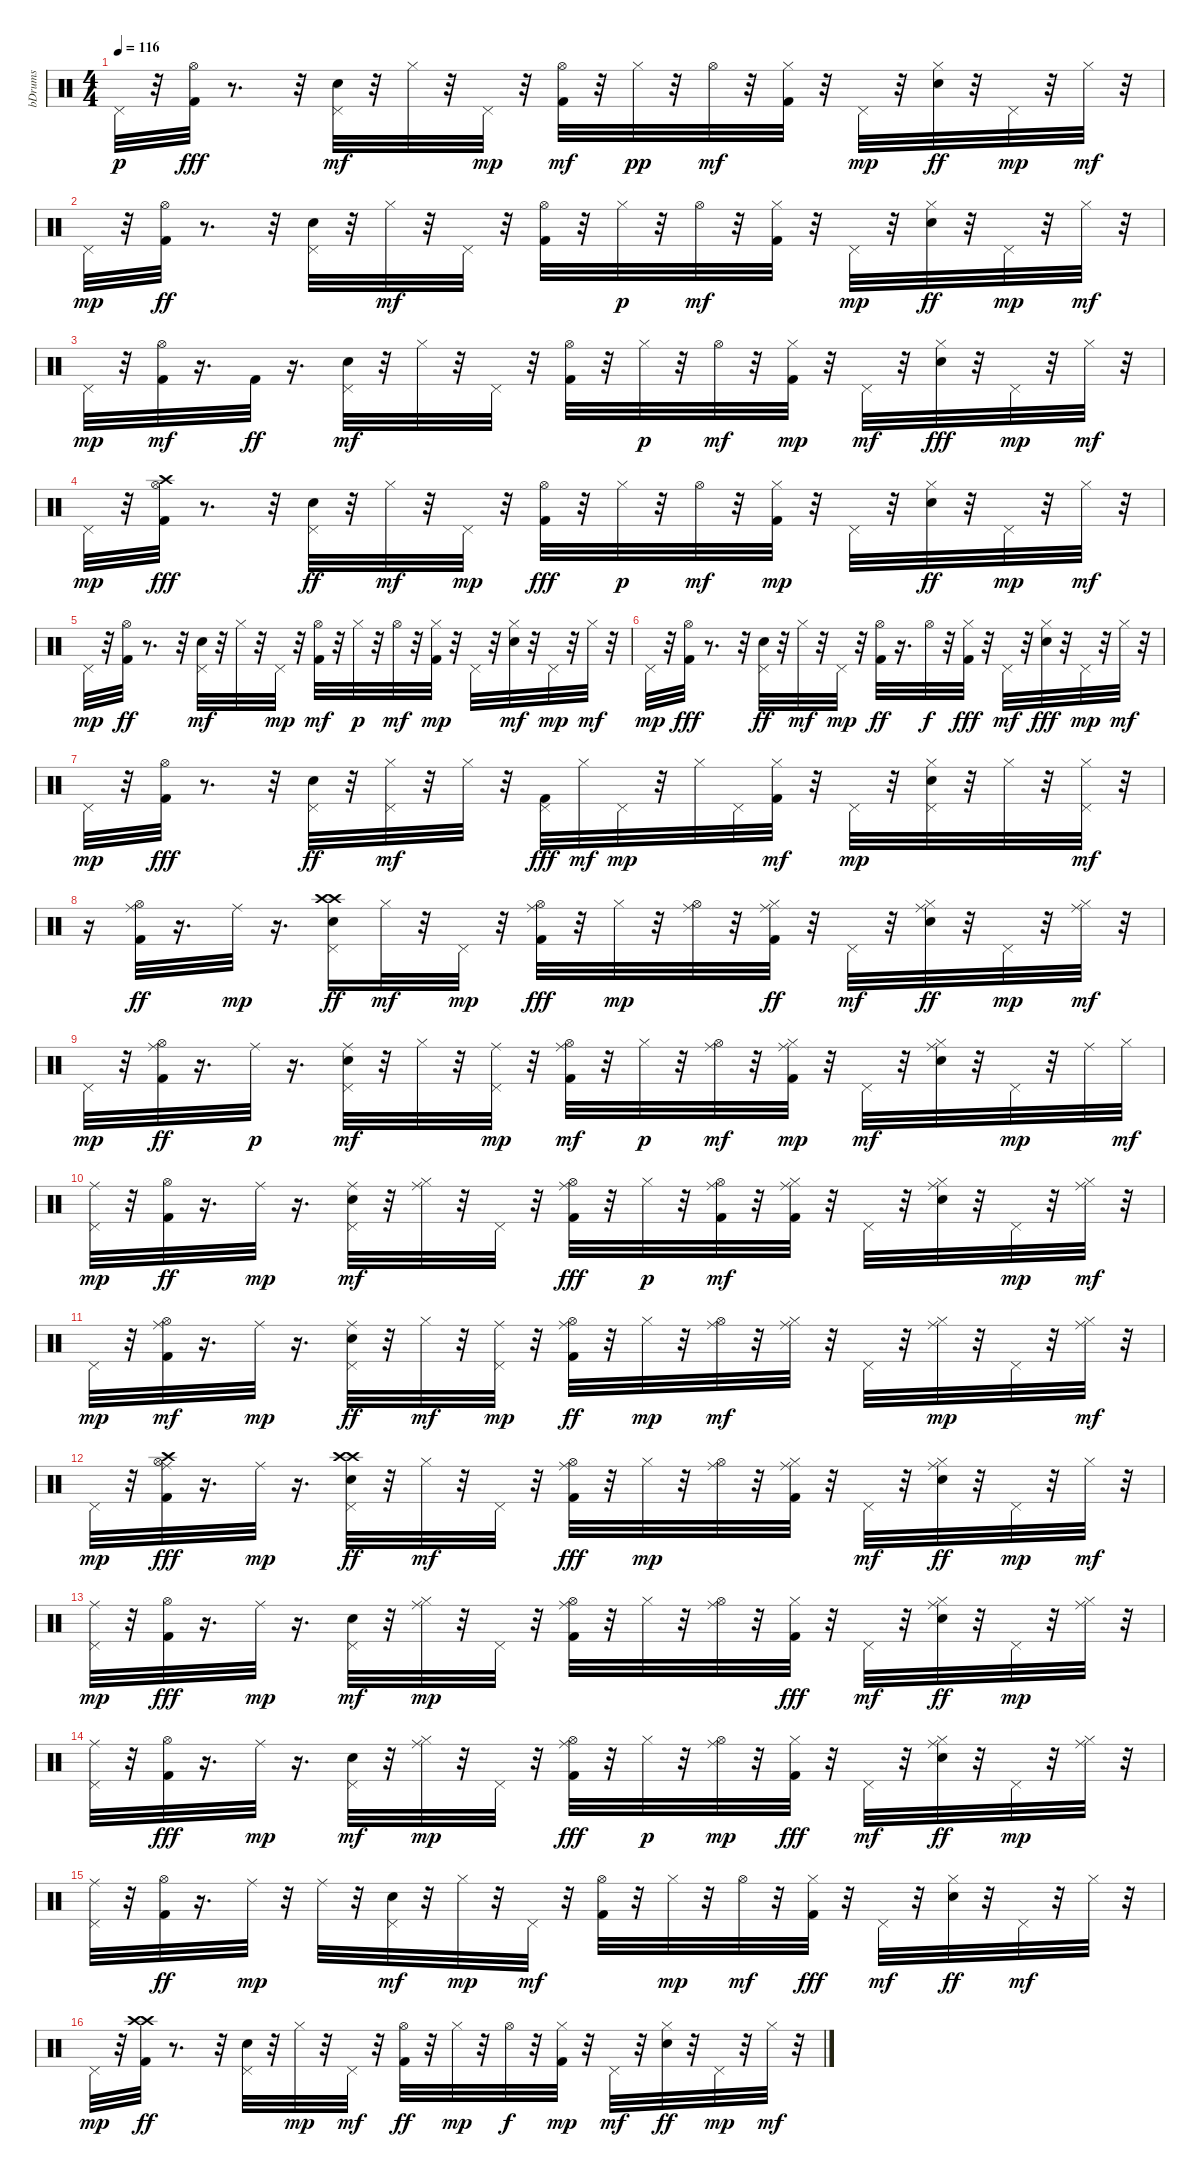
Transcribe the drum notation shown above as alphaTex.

\track ("bDrums" "bDrums") {instrument percussion}
\staff {score}
\articulation defaults
\ts (4 4)
\tempo 116
\clef neutral
\ks c "Pedal Hi-Hat (hit)".32{dy p}
r.32 ("Hi-Hat (open)" "Kick (hit) 2").32{dy fff} r.8{d} r.32 ("Snare (hit) 2" "Pedal Hi-Hat (hit)").32{dy mf} r.32 "Hi-Hat (closed)".32 r.32 "Pedal Hi-Hat (hit)".32{dy mp} r.32 ("Kick (hit) 2" "Hi-Hat (open)").32{dy mf} r.32 "Hi-Hat (closed)".32{dy pp} r.32 "Hi-Hat (open)".32{dy mf} r.32 ("Kick (hit) 2" "Hi-Hat (closed)").32 r.32 "Pedal Hi-Hat (hit)".32{dy mp} r.32 ("Hi-Hat (closed)" "Snare (hit) 2").32{dy ff} r.32 "Pedal Hi-Hat (hit)".32{dy mp} r.32 "Hi-Hat (closed)".32{dy mf} r.32 |
"Pedal Hi-Hat (hit)".32{dy mp} r.32 ("Hi-Hat (open)" "Kick (hit) 2").32{dy ff} r.8{d} r.32 ("Pedal Hi-Hat (hit)" "Snare (hit) 2").32 r.32 "Hi-Hat (closed)".32{dy mf} r.32 "Pedal Hi-Hat (hit)".32 r.32 ("Kick (hit) 2" "Hi-Hat (open)").32 r.32 "Hi-Hat (closed)".32{dy p} r.32 "Hi-Hat (open)".32{dy mf} r.32 ("Kick (hit) 2" "Hi-Hat (closed)").32 r.32 "Pedal Hi-Hat (hit)".32{dy mp} r.32 ("Hi-Hat (closed)" "Snare (hit) 2").32{dy ff} r.32 "Pedal Hi-Hat (hit)".32{dy mp} r.32 "Hi-Hat (closed)".32{dy mf} r.32 |
"Pedal Hi-Hat (hit)".32{dy mp} r.32 ("Kick (hit) 2" "Hi-Hat (open)").32{dy mf} r.16{d} "Kick (hit) 2".32{dy ff} r.16{d} ("Snare (hit) 2" "Pedal Hi-Hat (hit)").32{dy mf} r.32 "Hi-Hat (closed)".32 r.32 "Pedal Hi-Hat (hit)".32 r.32 ("Kick (hit) 2" "Hi-Hat (open)").32 r.32 "Hi-Hat (closed)".32{dy p} r.32 "Hi-Hat (open)".32{dy mf} r.32 ("Kick (hit) 2" "Hi-Hat (closed)").32{dy mp} r.32 "Pedal Hi-Hat (hit)".32{dy mf} r.32 ("Hi-Hat (closed)" "Snare (hit) 2").32{dy fff} r.32 "Pedal Hi-Hat (hit)".32{dy mp} r.32 "Hi-Hat (closed)".32{dy mf} r.32 |
"Pedal Hi-Hat (hit)".32{dy mp} r.32 ("Crash high (hit)" "Hi-Hat (open)" "Kick (hit) 2").32{dy fff} r.8{d} r.32 ("Pedal Hi-Hat (hit)" "Snare (hit) 2").32{dy ff} r.32 "Hi-Hat (closed)".32{dy mf} r.32 "Pedal Hi-Hat (hit)".32{dy mp} r.32 ("Hi-Hat (open)" "Kick (hit) 2").32{dy fff} r.32 "Hi-Hat (closed)".32{dy p} r.32 "Hi-Hat (open)".32{dy mf} r.32 ("Kick (hit) 2" "Hi-Hat (closed)").32{dy mp} r.32 "Pedal Hi-Hat (hit)".32 r.32 ("Hi-Hat (closed)" "Snare (hit) 2").32{dy ff} r.32 "Pedal Hi-Hat (hit)".32{dy mp} r.32 "Hi-Hat (closed)".32{dy mf} r.32 |
"Pedal Hi-Hat (hit)".32{dy mp} r.32 ("Hi-Hat (open)" "Kick (hit) 2").32{dy ff} r.8{d} r.32 ("Snare (hit) 2" "Pedal Hi-Hat (hit)").32{dy mf} r.32 "Hi-Hat (closed)".32 r.32 "Pedal Hi-Hat (hit)".32{dy mp} r.32 ("Kick (hit) 2" "Hi-Hat (open)").32{dy mf} r.32 "Hi-Hat (closed)".32{dy p} r.32 "Hi-Hat (open)".32{dy mf} r.32 ("Kick (hit) 2" "Hi-Hat (closed)").32{dy mp} r.32 "Pedal Hi-Hat (hit)".32 r.32 ("Snare (hit) 2" "Hi-Hat (closed)").32{dy mf} r.32 "Pedal Hi-Hat (hit)".32{dy mp} r.32 "Hi-Hat (closed)".32{dy mf} r.32 |
"Pedal Hi-Hat (hit)".32{dy mp} r.32 ("Hi-Hat (open)" "Kick (hit) 2").32{dy fff} r.8{d} r.32 ("Pedal Hi-Hat (hit)" "Snare (hit) 2").32{dy ff} r.32 "Hi-Hat (closed)".32{dy mf} r.32 "Pedal Hi-Hat (hit)".32{dy mp} r.32 ("Hi-Hat (open)" "Kick (hit) 2").32{dy ff} r.16{d} "Hi-Hat (open)".32{dy f} r.32 ("Hi-Hat (closed)" "Kick (hit) 2").32{dy fff} r.32 "Pedal Hi-Hat (hit)".32{dy mf} r.32 ("Hi-Hat (closed)" "Snare (hit) 2").32{dy fff} r.32 "Pedal Hi-Hat (hit)".32{dy mp} r.32 "Hi-Hat (closed)".32{dy mf} r.32 |
"Pedal Hi-Hat (hit)".32{dy mp} r.32 ("Hi-Hat (open)" "Kick (hit) 2").32{dy fff} r.8{d} r.32 ("Pedal Hi-Hat (hit)" "Snare (hit) 2").32{dy ff} r.32 ("Hi-Hat (closed)" "Pedal Hi-Hat (hit)").32{dy mf} r.32 "Hi-Hat (closed)".32 r.32 ("Pedal Hi-Hat (hit)" "Kick (hit) 2").32{dy fff} "Hi-Hat (closed)".32{dy mf} "Pedal Hi-Hat (hit)".32{dy mp} r.32 "Hi-Hat (closed)".32 "Pedal Hi-Hat (hit)".32 ("Kick (hit) 2" "Hi-Hat (closed)").32{dy mf} r.32 "Pedal Hi-Hat (hit)".32{dy mp} r.32 ("Hi-Hat (closed)" "Snare (hit) 2" "Pedal Hi-Hat (hit)").32 r.32 "Hi-Hat (closed)".32 r.32 ("Pedal Hi-Hat (hit)" "Hi-Hat (closed)").32{dy mf} r.32 |
r.16 ("Hi-Hat (open)" "Ride (middle)" "Kick (hit) 2").32{dy ff} r.16{d} "Ride (middle)".32{dy mp} r.16{d} ("Pedal Hi-Hat (hit)" "Crash high (hit)" "Crash high (hit)" "Snare (hit) 2").16{dy ff} "Hi-Hat (closed)".32{dy mf} r.32 "Pedal Hi-Hat (hit)".32{dy mp} r.32 ("Ride (middle)" "Hi-Hat (open)" "Kick (hit) 2").32{dy fff} r.32 "Hi-Hat (closed)".32{dy mp} r.32 ("Ride (middle)" "Hi-Hat (open)").32 r.32 ("Ride (middle)" "Hi-Hat (closed)" "Kick (hit) 2").32{dy ff} r.32 "Pedal Hi-Hat (hit)".32{dy mf} r.32 ("Ride (middle)" "Hi-Hat (closed)" "Snare (hit) 2").32{dy ff} r.32 "Pedal Hi-Hat (hit)".32{dy mp} r.32 ("Ride (middle)" "Hi-Hat (closed)").32{dy mf} r.32 |
"Pedal Hi-Hat (hit)".32{dy mp} r.32 ("Ride (middle)" "Hi-Hat (open)" "Kick (hit) 2").32{dy ff} r.16{d} "Ride (middle)".32{dy p} r.16{d} ("Ride (middle)" "Snare (hit) 2" "Pedal Hi-Hat (hit)").32{dy mf} r.32 "Hi-Hat (closed)".32 r.32 ("Ride (middle)" "Pedal Hi-Hat (hit)").32{dy mp} r.32 ("Ride (middle)" "Kick (hit) 2" "Hi-Hat (open)").32{dy mf} r.32 "Hi-Hat (closed)".32{dy p} r.32 ("Ride (middle)" "Hi-Hat (open)").32{dy mf} r.32 ("Kick (hit) 2" "Ride (middle)" "Hi-Hat (closed)").32{dy mp} r.32 "Pedal Hi-Hat (hit)".32{dy mf} r.32 ("Ride (middle)" "Snare (hit) 2" "Hi-Hat (closed)").32 r.32 "Pedal Hi-Hat (hit)".32{dy mp} r.32 "Ride (middle)".32 "Hi-Hat (closed)".32{dy mf} |
("Ride (middle)" "Pedal Hi-Hat (hit)").32{dy mp} r.32 ("Hi-Hat (open)" "Kick (hit) 2").32{dy ff} r.16{d} "Ride (middle)".32{dy mp} r.16{d} ("Ride (middle)" "Snare (hit) 2" "Pedal Hi-Hat (hit)").32{dy mf} r.32 ("Ride (middle)" "Hi-Hat (closed)").32 r.32 "Pedal Hi-Hat (hit)".32 r.32 ("Ride (middle)" "Hi-Hat (open)" "Kick (hit) 2").32{dy fff} r.32 "Hi-Hat (closed)".32{dy p} r.32 ("Ride (middle)" "Kick (hit) 2" "Hi-Hat (open)").32{dy mf} r.32 ("Ride (middle)" "Kick (hit) 2" "Hi-Hat (closed)").32 r.32 "Pedal Hi-Hat (hit)".32 r.32 ("Ride (middle)" "Snare (hit) 2" "Hi-Hat (closed)").32 r.32 "Pedal Hi-Hat (hit)".32{dy mp} r.32 ("Ride (middle)" "Hi-Hat (closed)").32{dy mf} r.32 |
"Pedal Hi-Hat (hit)".32{dy mp} r.32 ("Ride (middle)" "Kick (hit) 2" "Hi-Hat (open)").32{dy mf} r.16{d} "Ride (middle)".32{dy mp} r.16{d} ("Ride (middle)" "Pedal Hi-Hat (hit)" "Snare (hit) 2").32{dy ff} r.32 "Hi-Hat (closed)".32{dy mf} r.32 ("Ride (middle)" "Pedal Hi-Hat (hit)").32{dy mp} r.32 ("Ride (middle)" "Hi-Hat (open)" "Kick (hit) 2").32{dy ff} r.32 "Hi-Hat (closed)".32{dy mp} r.32 ("Ride (middle)" "Hi-Hat (open)").32{dy mf} r.32 ("Ride (middle)" "Hi-Hat (closed)").32 r.32 "Pedal Hi-Hat (hit)".32 r.32 ("Hi-Hat (closed)" "Ride (middle)").32{dy mp} r.32 "Pedal Hi-Hat (hit)".32 r.32 ("Ride (middle)" "Hi-Hat (closed)").32{dy mf} r.32 |
"Pedal Hi-Hat (hit)".32{dy mp} r.32 ("Crash high (hit)" "Hi-Hat (open)" "Ride (middle)" "Kick (hit) 2").32{dy fff} r.16{d} "Ride (middle)".32{dy mp} r.16{d} ("Crash high (hit)" "Crash high (hit)" "Pedal Hi-Hat (hit)" "Snare (hit) 2").32{dy ff} r.32 "Hi-Hat (closed)".32{dy mf} r.32 "Pedal Hi-Hat (hit)".32 r.32 ("Hi-Hat (open)" "Ride (middle)" "Kick (hit) 2").32{dy fff} r.32 "Hi-Hat (closed)".32{dy mp} r.32 ("Hi-Hat (open)" "Ride (middle)").32 r.32 ("Kick (hit) 2" "Ride (middle)" "Hi-Hat (closed)").32 r.32 "Pedal Hi-Hat (hit)".32{dy mf} r.32 ("Ride (middle)" "Hi-Hat (closed)" "Snare (hit) 2").32{dy ff} r.32 "Pedal Hi-Hat (hit)".32{dy mp} r.32 "Hi-Hat (closed)".32{dy mf} r.32 |
("Pedal Hi-Hat (hit)" "Ride (middle)").32{dy mp} r.32 ("Hi-Hat (open)" "Kick (hit) 2").32{dy fff} r.16{d} "Ride (middle)".32{dy mp} r.16{d} ("Snare (hit) 2" "Pedal Hi-Hat (hit)").32{dy mf} r.32 ("Hi-Hat (closed)" "Ride (middle)").32{dy mp} r.32 "Pedal Hi-Hat (hit)".32 r.32 ("Hi-Hat (open)" "Kick (hit) 2" "Ride (middle)").32 r.32 "Hi-Hat (closed)".32 r.32 ("Hi-Hat (open)" "Ride (middle)").32 r.32 ("Hi-Hat (closed)" "Kick (hit) 2").32{dy fff} r.32 "Pedal Hi-Hat (hit)".32{dy mf} r.32 ("Hi-Hat (closed)" "Ride (middle)" "Snare (hit) 2").32{dy ff} r.32 "Pedal Hi-Hat (hit)".32{dy mp} r.32 ("Hi-Hat (closed)" "Ride (middle)").32 r.32 |
("Pedal Hi-Hat (hit)" "Ride (middle)").32 r.32 ("Hi-Hat (open)" "Kick (hit) 2").32{dy fff} r.16{d} "Ride (middle)".32{dy mp} r.16{d} ("Snare (hit) 2" "Pedal Hi-Hat (hit)").32{dy mf} r.32 ("Hi-Hat (closed)" "Ride (middle)").32{dy mp} r.32 "Pedal Hi-Hat (hit)".32 r.32 ("Hi-Hat (open)" "Ride (middle)" "Kick (hit) 2").32{dy fff} r.32 "Hi-Hat (closed)".32{dy p} r.32 ("Hi-Hat (open)" "Ride (middle)").32{dy mp} r.32 ("Hi-Hat (closed)" "Kick (hit) 2").32{dy fff} r.32 "Pedal Hi-Hat (hit)".32{dy mf} r.32 ("Hi-Hat (closed)" "Ride (middle)" "Snare (hit) 2").32{dy ff} r.32 "Pedal Hi-Hat (hit)".32{dy mp} r.32 ("Hi-Hat (closed)" "Ride (middle)").32 r.32 |
("Pedal Hi-Hat (hit)" "Ride (middle)").32 r.32 ("Hi-Hat (open)" "Kick (hit) 2").32{dy ff} r.16{d} "Ride (middle)".32{dy mp} r.32 "Ride (middle)".32 r.32 ("Snare (hit) 2" "Pedal Hi-Hat (hit)").32{dy mf} r.32 "Hi-Hat (closed)".32{dy mp} r.32 "Pedal Hi-Hat (hit)".32{dy mf} r.32 ("Kick (hit) 2" "Hi-Hat (open)").32 r.32 "Hi-Hat (closed)".32{dy mp} r.32 "Hi-Hat (open)".32{dy mf} r.32 ("Hi-Hat (closed)" "Kick (hit) 2").32{dy fff} r.32 "Pedal Hi-Hat (hit)".32{dy mf} r.32 ("Hi-Hat (closed)" "Snare (hit) 2").32{dy ff} r.32 "Pedal Hi-Hat (hit)".32{dy mf} r.32 "Hi-Hat (closed)".32 r.32 |
"Pedal Hi-Hat (hit)".32{dy mp} r.32 ("Crash high (hit)" "Crash high (hit)" "Kick (hit) 2").32{dy ff} r.8{d} r.32 ("Pedal Hi-Hat (hit)" "Snare (hit) 2").32 r.32 "Hi-Hat (closed)".32{dy mp} r.32 "Pedal Hi-Hat (hit)".32{dy mf} r.32 ("Hi-Hat (open)" "Kick (hit) 2").32{dy ff} r.32 "Hi-Hat (closed)".32{dy mp} r.32 "Hi-Hat (open)".32{dy f} r.32 ("Kick (hit) 2" "Hi-Hat (closed)").32{dy mp} r.32 "Pedal Hi-Hat (hit)".32{dy mf} r.32 ("Hi-Hat (closed)" "Snare (hit) 2").32{dy ff} r.32 "Pedal Hi-Hat (hit)".32{dy mp} r.32 "Hi-Hat (closed)".32{dy mf} r.32
